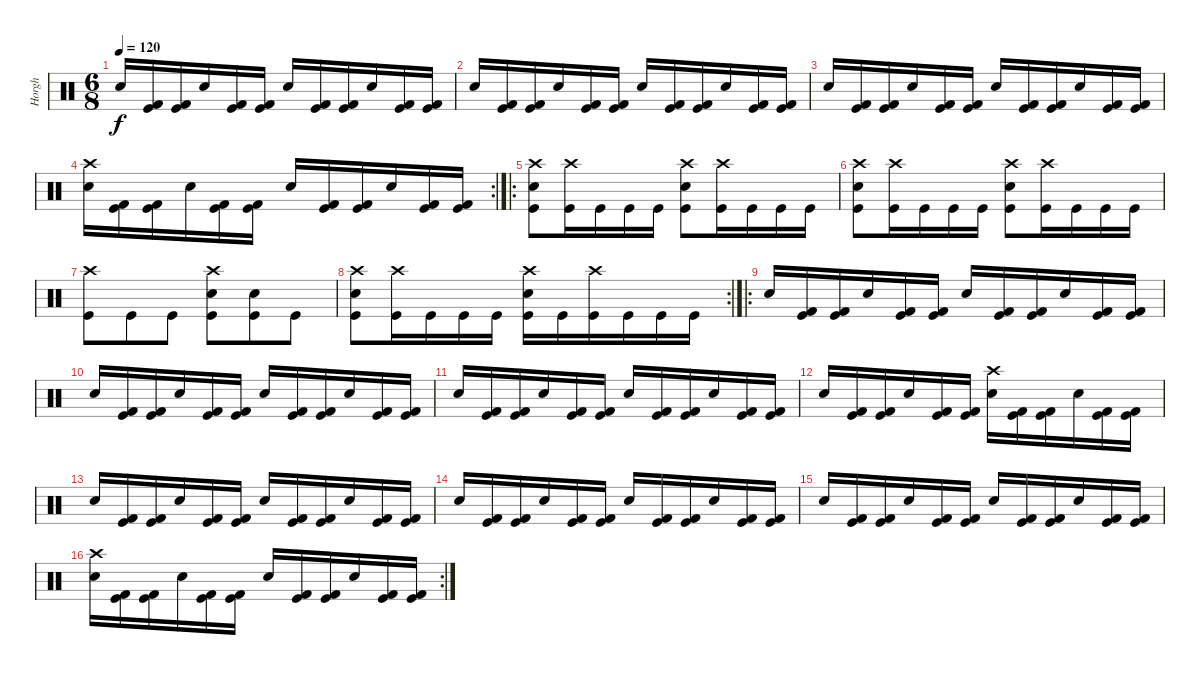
\track ("Horgh" "Horgh") {instrument percussion}
\staff {score}
\articulation defaults
\ts (6 8)
\tempo 120
\clef neutral
\ks c "Electric Snare (hit)".16{dy f}
("Kick (hit) 2" "Kick (hit)").16 ("Kick (hit) 2" "Kick (hit)").16 "Electric Snare (hit)".16 ("Kick (hit) 2" "Kick (hit)").16 ("Kick (hit) 2" "Kick (hit)").16 "Electric Snare (hit)".16 ("Kick (hit) 2" "Kick (hit)").16 ("Kick (hit) 2" "Kick (hit)").16 "Electric Snare (hit)".16 ("Kick (hit) 2" "Kick (hit)").16 ("Kick (hit) 2" "Kick (hit)").16 |
"Electric Snare (hit)".16 ("Kick (hit) 2" "Kick (hit)").16 ("Kick (hit) 2" "Kick (hit)").16 "Electric Snare (hit)".16 ("Kick (hit) 2" "Kick (hit)").16 ("Kick (hit) 2" "Kick (hit)").16 "Electric Snare (hit)".16 ("Kick (hit) 2" "Kick (hit)").16 ("Kick (hit) 2" "Kick (hit)").16 "Electric Snare (hit)".16 ("Kick (hit) 2" "Kick (hit)").16 ("Kick (hit) 2" "Kick (hit)").16 |
"Electric Snare (hit)".16 ("Kick (hit) 2" "Kick (hit)").16 ("Kick (hit) 2" "Kick (hit)").16 "Electric Snare (hit)".16 ("Kick (hit) 2" "Kick (hit)").16 ("Kick (hit) 2" "Kick (hit)").16 "Electric Snare (hit)".16 ("Kick (hit) 2" "Kick (hit)").16 ("Kick (hit) 2" "Kick (hit)").16 "Electric Snare (hit)".16 ("Kick (hit) 2" "Kick (hit)").16 ("Kick (hit) 2" "Kick (hit)").16 |
\rc 2
("Crash high (hit)" "Electric Snare (hit)").16 ("Kick (hit) 2" "Kick (hit)").16 ("Kick (hit) 2" "Kick (hit)").16 "Electric Snare (hit)".16 ("Kick (hit) 2" "Kick (hit)").16 ("Kick (hit) 2" "Kick (hit)").16 "Electric Snare (hit)".16 ("Kick (hit) 2" "Kick (hit)").16 ("Kick (hit) 2" "Kick (hit)").16 "Electric Snare (hit)".16 ("Kick (hit) 2" "Kick (hit)").16 ("Kick (hit) 2" "Kick (hit)").16 |
\ro
("Crash high (hit)" "Snare (hit) 2" "Kick (hit)").8 ("Crash high (hit)" "Kick (hit)").16 "Kick (hit)".16 "Kick (hit)".16 "Kick (hit)".16 ("Crash high (hit)" "Snare (hit) 2" "Kick (hit)").8 ("Crash high (hit)" "Kick (hit)").16 "Kick (hit)".16 "Kick (hit)".16 "Kick (hit)".16 |
("Crash high (hit)" "Snare (hit) 2" "Kick (hit)").8 ("Crash high (hit)" "Kick (hit)").16 "Kick (hit)".16 "Kick (hit)".16 "Kick (hit)".16 ("Crash high (hit)" "Snare (hit) 2" "Kick (hit)").8 ("Crash high (hit)" "Kick (hit)").16 "Kick (hit)".16 "Kick (hit)".16 "Kick (hit)".16 |
("Crash high (hit)" "Kick (hit)").8 "Kick (hit)".8 "Kick (hit)".8 ("Crash high (hit)" "Electric Snare (hit)" "Kick (hit)").8 ("Snare (hit) 2" "Kick (hit)").8 "Kick (hit)".8 |
\rc 2
("Crash high (hit)" "Snare (hit) 2" "Kick (hit)").8 ("Crash high (hit)" "Kick (hit)").16 "Kick (hit)".16 "Kick (hit)".16 "Kick (hit)".16 ("Crash high (hit)" "Snare (hit) 2" "Kick (hit)").16 "Kick (hit)".16 ("Crash high (hit)" "Kick (hit)").16 "Kick (hit)".16 "Kick (hit)".16 "Kick (hit)".16 |
\ro "Electric Snare (hit)".16
("Kick (hit) 2" "Kick (hit)").16 ("Kick (hit) 2" "Kick (hit)").16 "Electric Snare (hit)".16 ("Kick (hit) 2" "Kick (hit)").16 ("Kick (hit) 2" "Kick (hit)").16 "Electric Snare (hit)".16 ("Kick (hit) 2" "Kick (hit)").16 ("Kick (hit) 2" "Kick (hit)").16 "Electric Snare (hit)".16 ("Kick (hit) 2" "Kick (hit)").16 ("Kick (hit) 2" "Kick (hit)").16 |
"Electric Snare (hit)".16 ("Kick (hit) 2" "Kick (hit)").16 ("Kick (hit) 2" "Kick (hit)").16 "Electric Snare (hit)".16 ("Kick (hit) 2" "Kick (hit)").16 ("Kick (hit) 2" "Kick (hit)").16 "Electric Snare (hit)".16 ("Kick (hit) 2" "Kick (hit)").16 ("Kick (hit) 2" "Kick (hit)").16 "Electric Snare (hit)".16 ("Kick (hit) 2" "Kick (hit)").16 ("Kick (hit) 2" "Kick (hit)").16 |
"Electric Snare (hit)".16 ("Kick (hit) 2" "Kick (hit)").16 ("Kick (hit) 2" "Kick (hit)").16 "Electric Snare (hit)".16 ("Kick (hit) 2" "Kick (hit)").16 ("Kick (hit) 2" "Kick (hit)").16 "Electric Snare (hit)".16 ("Kick (hit) 2" "Kick (hit)").16 ("Kick (hit) 2" "Kick (hit)").16 "Electric Snare (hit)".16 ("Kick (hit) 2" "Kick (hit)").16 ("Kick (hit) 2" "Kick (hit)").16 |
"Electric Snare (hit)".16 ("Kick (hit) 2" "Kick (hit)").16 ("Kick (hit) 2" "Kick (hit)").16 "Electric Snare (hit)".16 ("Kick (hit) 2" "Kick (hit)").16 ("Kick (hit) 2" "Kick (hit)").16 ("Crash high (hit)" "Electric Snare (hit)").16 ("Kick (hit) 2" "Kick (hit)").16 ("Kick (hit) 2" "Kick (hit)").16 "Electric Snare (hit)".16 ("Kick (hit) 2" "Kick (hit)").16 ("Kick (hit) 2" "Kick (hit)").16 |
"Electric Snare (hit)".16 ("Kick (hit) 2" "Kick (hit)").16 ("Kick (hit) 2" "Kick (hit)").16 "Electric Snare (hit)".16 ("Kick (hit) 2" "Kick (hit)").16 ("Kick (hit) 2" "Kick (hit)").16 "Electric Snare (hit)".16 ("Kick (hit) 2" "Kick (hit)").16 ("Kick (hit) 2" "Kick (hit)").16 "Electric Snare (hit)".16 ("Kick (hit) 2" "Kick (hit)").16 ("Kick (hit) 2" "Kick (hit)").16 |
"Electric Snare (hit)".16 ("Kick (hit) 2" "Kick (hit)").16 ("Kick (hit) 2" "Kick (hit)").16 "Electric Snare (hit)".16 ("Kick (hit) 2" "Kick (hit)").16 ("Kick (hit) 2" "Kick (hit)").16 "Electric Snare (hit)".16 ("Kick (hit) 2" "Kick (hit)").16 ("Kick (hit) 2" "Kick (hit)").16 "Electric Snare (hit)".16 ("Kick (hit) 2" "Kick (hit)").16 ("Kick (hit) 2" "Kick (hit)").16 |
"Electric Snare (hit)".16 ("Kick (hit) 2" "Kick (hit)").16 ("Kick (hit) 2" "Kick (hit)").16 "Electric Snare (hit)".16 ("Kick (hit) 2" "Kick (hit)").16 ("Kick (hit) 2" "Kick (hit)").16 "Electric Snare (hit)".16 ("Kick (hit) 2" "Kick (hit)").16 ("Kick (hit) 2" "Kick (hit)").16 "Electric Snare (hit)".16 ("Kick (hit) 2" "Kick (hit)").16 ("Kick (hit) 2" "Kick (hit)").16 |
\rc 2
("Crash high (hit)" "Electric Snare (hit)").16 ("Kick (hit) 2" "Kick (hit)").16 ("Kick (hit) 2" "Kick (hit)").16 "Electric Snare (hit)".16 ("Kick (hit) 2" "Kick (hit)").16 ("Kick (hit) 2" "Kick (hit)").16 "Electric Snare (hit)".16 ("Kick (hit) 2" "Kick (hit)").16 ("Kick (hit) 2" "Kick (hit)").16 "Electric Snare (hit)".16 ("Kick (hit) 2" "Kick (hit)").16 ("Kick (hit) 2" "Kick (hit)").16
